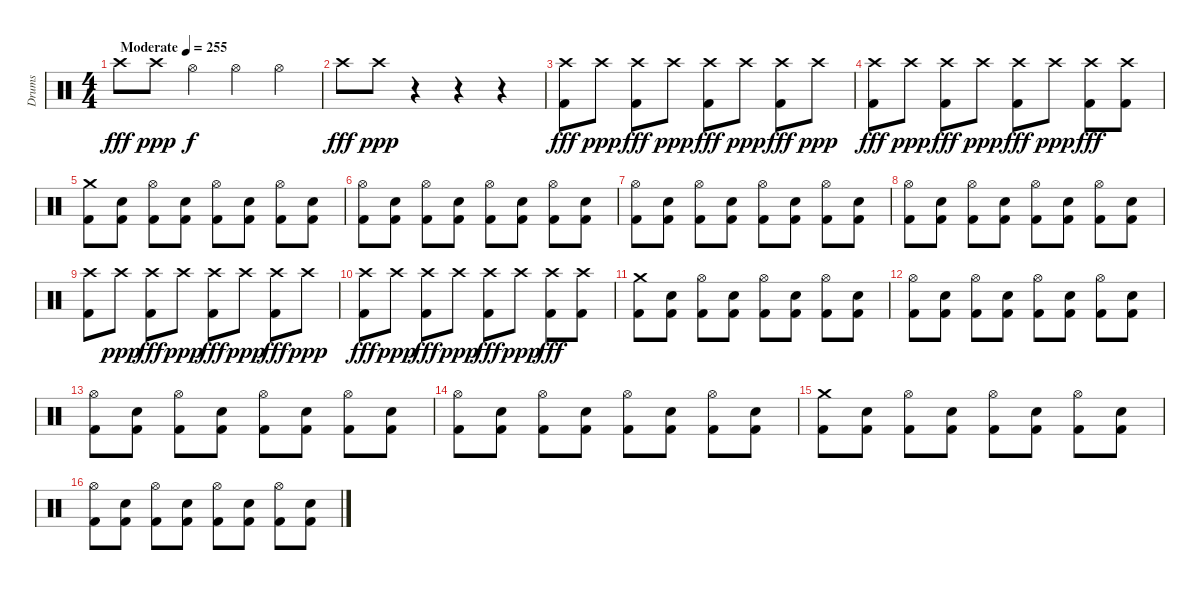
\track ("Drums" "Drums") {instrument percussion}
\staff {score}
\articulation defaults
\ts (4 4)
\tempo (255 "Moderate")
\clef neutral
\ks c "Crash high (hit)".8{dy fff} "Crash high (hit)".8{dy ppp} "Hi-Hat (open)".4{dy f} "Hi-Hat (open)".4 "Hi-Hat (open)".4
|
"Crash high (hit)".8{dy fff} "Crash high (hit)".8{dy ppp} r.4 r.4 r.4 |
("Crash high (hit)" "Kick (hit) 2").8{dy fff} "Crash high (hit)".8{dy ppp} ("Crash high (hit)" "Kick (hit) 2").8{dy fff} "Crash high (hit)".8{dy ppp} ("Crash high (hit)" "Kick (hit) 2").8{dy fff} "Crash high (hit)".8{dy ppp} ("Crash high (hit)" "Kick (hit) 2").8{dy fff} "Crash high (hit)".8{dy ppp} |
("Crash high (hit)" "Kick (hit) 2").8{dy fff} "Crash high (hit)".8{dy ppp} ("Crash high (hit)" "Kick (hit) 2").8{dy fff} "Crash high (hit)".8{dy ppp} ("Crash high (hit)" "Kick (hit) 2").8{dy fff} "Crash high (hit)".8{dy ppp} ("Crash high (hit)" "Kick (hit) 2").8{dy fff} ("Crash high (hit)" "Kick (hit) 2").8 |
("Crash medium (hit)" "Kick (hit) 2").8 ("Electric Snare (hit)" "Kick (hit) 2").8 ("Hi-Hat (open)" "Kick (hit) 2").8 ("Electric Snare (hit)" "Kick (hit) 2").8 ("Hi-Hat (open)" "Kick (hit) 2").8 ("Electric Snare (hit)" "Kick (hit) 2").8 ("Hi-Hat (open)" "Kick (hit) 2").8 ("Electric Snare (hit)" "Kick (hit) 2").8 |
("Hi-Hat (open)" "Kick (hit) 2").8 ("Electric Snare (hit)" "Kick (hit) 2").8 ("Hi-Hat (open)" "Kick (hit) 2").8 ("Electric Snare (hit)" "Kick (hit) 2").8 ("Hi-Hat (open)" "Kick (hit) 2").8 ("Electric Snare (hit)" "Kick (hit) 2").8 ("Hi-Hat (open)" "Kick (hit) 2").8 ("Electric Snare (hit)" "Kick (hit) 2").8 |
("Hi-Hat (open)" "Kick (hit) 2").8 ("Electric Snare (hit)" "Kick (hit) 2").8 ("Hi-Hat (open)" "Kick (hit) 2").8 ("Electric Snare (hit)" "Kick (hit) 2").8 ("Hi-Hat (open)" "Kick (hit) 2").8 ("Electric Snare (hit)" "Kick (hit) 2").8 ("Hi-Hat (open)" "Kick (hit) 2").8 ("Electric Snare (hit)" "Kick (hit) 2").8 |
("Hi-Hat (open)" "Kick (hit) 2").8 ("Electric Snare (hit)" "Kick (hit) 2").8 ("Hi-Hat (open)" "Kick (hit) 2").8 ("Electric Snare (hit)" "Kick (hit) 2").8 ("Hi-Hat (open)" "Kick (hit) 2").8 ("Electric Snare (hit)" "Kick (hit) 2").8 ("Hi-Hat (open)" "Kick (hit) 2").8 ("Electric Snare (hit)" "Kick (hit) 2").8 |
("Crash high (hit)" "Kick (hit) 2").8 "Crash high (hit)".8{dy ppp} ("Crash high (hit)" "Kick (hit) 2").8{dy fff} "Crash high (hit)".8{dy ppp} ("Crash high (hit)" "Kick (hit) 2").8{dy fff} "Crash high (hit)".8{dy ppp} ("Crash high (hit)" "Kick (hit) 2").8{dy fff} "Crash high (hit)".8{dy ppp} |
("Crash high (hit)" "Kick (hit) 2").8{dy fff} "Crash high (hit)".8{dy ppp} ("Crash high (hit)" "Kick (hit) 2").8{dy fff} "Crash high (hit)".8{dy ppp} ("Crash high (hit)" "Kick (hit) 2").8{dy fff} "Crash high (hit)".8{dy ppp} ("Crash high (hit)" "Kick (hit) 2").8{dy fff} ("Crash high (hit)" "Kick (hit) 2").8 |
("Crash medium (hit)" "Kick (hit) 2").8 ("Electric Snare (hit)" "Kick (hit) 2").8 ("Hi-Hat (open)" "Kick (hit) 2").8 ("Electric Snare (hit)" "Kick (hit) 2").8 ("Hi-Hat (open)" "Kick (hit) 2").8 ("Electric Snare (hit)" "Kick (hit) 2").8 ("Hi-Hat (open)" "Kick (hit) 2").8 ("Electric Snare (hit)" "Kick (hit) 2").8 |
("Hi-Hat (open)" "Kick (hit) 2").8 ("Electric Snare (hit)" "Kick (hit) 2").8 ("Hi-Hat (open)" "Kick (hit) 2").8 ("Electric Snare (hit)" "Kick (hit) 2").8 ("Hi-Hat (open)" "Kick (hit) 2").8 ("Electric Snare (hit)" "Kick (hit) 2").8 ("Hi-Hat (open)" "Kick (hit) 2").8 ("Electric Snare (hit)" "Kick (hit) 2").8 |
("Hi-Hat (open)" "Kick (hit) 2").8 ("Electric Snare (hit)" "Kick (hit) 2").8 ("Hi-Hat (open)" "Kick (hit) 2").8 ("Electric Snare (hit)" "Kick (hit) 2").8 ("Hi-Hat (open)" "Kick (hit) 2").8 ("Electric Snare (hit)" "Kick (hit) 2").8 ("Hi-Hat (open)" "Kick (hit) 2").8 ("Electric Snare (hit)" "Kick (hit) 2").8 |
("Hi-Hat (open)" "Kick (hit) 2").8 ("Electric Snare (hit)" "Kick (hit) 2").8 ("Hi-Hat (open)" "Kick (hit) 2").8 ("Electric Snare (hit)" "Kick (hit) 2").8 ("Hi-Hat (open)" "Kick (hit) 2").8 ("Electric Snare (hit)" "Kick (hit) 2").8 ("Hi-Hat (open)" "Kick (hit) 2").8 ("Electric Snare (hit)" "Kick (hit) 2").8 |
("Crash medium (hit)" "Kick (hit) 2").8 ("Electric Snare (hit)" "Kick (hit) 2").8 ("Hi-Hat (open)" "Kick (hit) 2").8 ("Electric Snare (hit)" "Kick (hit) 2").8 ("Hi-Hat (open)" "Kick (hit) 2").8 ("Electric Snare (hit)" "Kick (hit) 2").8 ("Hi-Hat (open)" "Kick (hit) 2").8 ("Electric Snare (hit)" "Kick (hit) 2").8 |
("Hi-Hat (open)" "Kick (hit) 2").8 ("Electric Snare (hit)" "Kick (hit) 2").8 ("Hi-Hat (open)" "Kick (hit) 2").8 ("Electric Snare (hit)" "Kick (hit) 2").8 ("Hi-Hat (open)" "Kick (hit) 2").8 ("Electric Snare (hit)" "Kick (hit) 2").8 ("Hi-Hat (open)" "Kick (hit) 2").8 ("Electric Snare (hit)" "Kick (hit) 2").8
